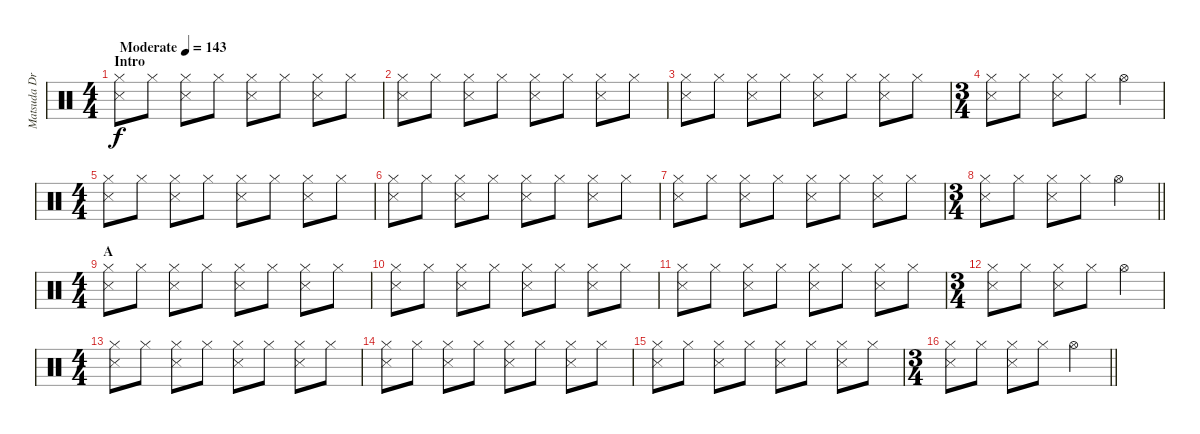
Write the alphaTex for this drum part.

\track ("Matsuda Drums" "Matsuda Dr") {instrument percussion}
\staff {score}
\articulation defaults
\ts (4 4)
\section ("" "Intro")
\tempo (143 "Moderate")
\clef neutral
\ks c
("Hi-Hat (closed)" "Snare (side stick) 3").8{dy f} "Hi-Hat (closed)".8 ("Hi-Hat (closed)" "Snare (side stick) 3").8 "Hi-Hat (closed)".8 ("Hi-Hat (closed)" "Snare (side stick) 3").8 "Hi-Hat (closed)".8 ("Hi-Hat (closed)" "Snare (side stick) 3").8 "Hi-Hat (closed)".8 |
("Hi-Hat (closed)" "Snare (side stick) 3").8 "Hi-Hat (closed)".8 ("Hi-Hat (closed)" "Snare (side stick) 3").8 "Hi-Hat (closed)".8 ("Hi-Hat (closed)" "Snare (side stick) 3").8 "Hi-Hat (closed)".8 ("Hi-Hat (closed)" "Snare (side stick) 3").8 "Hi-Hat (closed)".8 |
("Hi-Hat (closed)" "Snare (side stick) 3").8 "Hi-Hat (closed)".8 ("Hi-Hat (closed)" "Snare (side stick) 3").8 "Hi-Hat (closed)".8 ("Hi-Hat (closed)" "Snare (side stick) 3").8 "Hi-Hat (closed)".8 ("Hi-Hat (closed)" "Snare (side stick) 3").8 "Hi-Hat (closed)".8 |
\ts (3 4)
("Hi-Hat (closed)" "Snare (side stick) 3").8 "Hi-Hat (closed)".8 ("Hi-Hat (closed)" "Snare (side stick) 3").8 "Hi-Hat (closed)".8 "Hi-Hat (open)".4 |
\ts (4 4)
("Hi-Hat (closed)" "Snare (side stick) 3").8 "Hi-Hat (closed)".8 ("Hi-Hat (closed)" "Snare (side stick) 3").8 "Hi-Hat (closed)".8 ("Hi-Hat (closed)" "Snare (side stick) 3").8 "Hi-Hat (closed)".8 ("Hi-Hat (closed)" "Snare (side stick) 3").8 "Hi-Hat (closed)".8 |
("Hi-Hat (closed)" "Snare (side stick) 3").8 "Hi-Hat (closed)".8 ("Hi-Hat (closed)" "Snare (side stick) 3").8 "Hi-Hat (closed)".8 ("Hi-Hat (closed)" "Snare (side stick) 3").8 "Hi-Hat (closed)".8 ("Hi-Hat (closed)" "Snare (side stick) 3").8 "Hi-Hat (closed)".8 |
("Hi-Hat (closed)" "Snare (side stick) 3").8 "Hi-Hat (closed)".8 ("Hi-Hat (closed)" "Snare (side stick) 3").8 "Hi-Hat (closed)".8 ("Hi-Hat (closed)" "Snare (side stick) 3").8 "Hi-Hat (closed)".8 ("Hi-Hat (closed)" "Snare (side stick) 3").8 "Hi-Hat (closed)".8 |
\ts (3 4)
\barLineRight lightlight
("Hi-Hat (closed)" "Snare (side stick) 3").8 "Hi-Hat (closed)".8 ("Hi-Hat (closed)" "Snare (side stick) 3").8 "Hi-Hat (closed)".8 "Hi-Hat (open)".4 |
\ts (4 4)
\section ("" "A")
("Hi-Hat (closed)" "Snare (side stick) 3").8 "Hi-Hat (closed)".8 ("Hi-Hat (closed)" "Snare (side stick) 3").8 "Hi-Hat (closed)".8 ("Hi-Hat (closed)" "Snare (side stick) 3").8 "Hi-Hat (closed)".8 ("Hi-Hat (closed)" "Snare (side stick) 3").8 "Hi-Hat (closed)".8 |
("Hi-Hat (closed)" "Snare (side stick) 3").8 "Hi-Hat (closed)".8 ("Hi-Hat (closed)" "Snare (side stick) 3").8 "Hi-Hat (closed)".8 ("Hi-Hat (closed)" "Snare (side stick) 3").8 "Hi-Hat (closed)".8 ("Hi-Hat (closed)" "Snare (side stick) 3").8 "Hi-Hat (closed)".8 |
("Hi-Hat (closed)" "Snare (side stick) 3").8 "Hi-Hat (closed)".8 ("Hi-Hat (closed)" "Snare (side stick) 3").8 "Hi-Hat (closed)".8 ("Hi-Hat (closed)" "Snare (side stick) 3").8 "Hi-Hat (closed)".8 ("Hi-Hat (closed)" "Snare (side stick) 3").8 "Hi-Hat (closed)".8 |
\ts (3 4)
("Hi-Hat (closed)" "Snare (side stick) 3").8 "Hi-Hat (closed)".8 ("Hi-Hat (closed)" "Snare (side stick) 3").8 "Hi-Hat (closed)".8 "Hi-Hat (open)".4 |
\ts (4 4)
("Hi-Hat (closed)" "Snare (side stick) 3").8 "Hi-Hat (closed)".8 ("Hi-Hat (closed)" "Snare (side stick) 3").8 "Hi-Hat (closed)".8 ("Hi-Hat (closed)" "Snare (side stick) 3").8 "Hi-Hat (closed)".8 ("Hi-Hat (closed)" "Snare (side stick) 3").8 "Hi-Hat (closed)".8 |
("Hi-Hat (closed)" "Snare (side stick) 3").8 "Hi-Hat (closed)".8 ("Hi-Hat (closed)" "Snare (side stick) 3").8 "Hi-Hat (closed)".8 ("Hi-Hat (closed)" "Snare (side stick) 3").8 "Hi-Hat (closed)".8 ("Hi-Hat (closed)" "Snare (side stick) 3").8 "Hi-Hat (closed)".8 |
("Hi-Hat (closed)" "Snare (side stick) 3").8 "Hi-Hat (closed)".8 ("Hi-Hat (closed)" "Snare (side stick) 3").8 "Hi-Hat (closed)".8 ("Hi-Hat (closed)" "Snare (side stick) 3").8 "Hi-Hat (closed)".8 ("Hi-Hat (closed)" "Snare (side stick) 3").8 "Hi-Hat (closed)".8 |
\ts (3 4)
\barLineRight lightlight
("Hi-Hat (closed)" "Snare (side stick) 3").8 "Hi-Hat (closed)".8 ("Hi-Hat (closed)" "Snare (side stick) 3").8 "Hi-Hat (closed)".8 "Hi-Hat (open)".4
